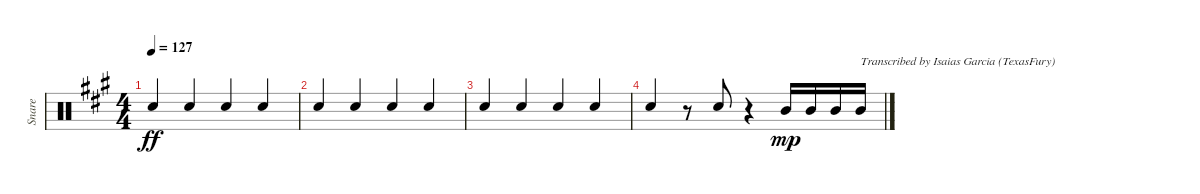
\track ("Snare" "Snare") {instrument percussion}
\staff {score}
\articulation defaults
\ts (4 4)
\tempo 127
\clef neutral
\ks a "Electric Snare (hit)".4{dy ff beam Up} "Electric Snare (hit)".4{beam Up} "Electric Snare (hit)".4{beam Up} "Electric Snare (hit)".4{beam Up}
|
"Electric Snare (hit)".4{beam Up} "Electric Snare (hit)".4{beam Up} "Electric Snare (hit)".4{beam Up} "Electric Snare (hit)".4{beam Up} |
"Electric Snare (hit)".4{beam Up} "Electric Snare (hit)".4{beam Up} "Electric Snare (hit)".4{beam Up} "Electric Snare (hit)".4{beam Up} |
"Electric Snare (hit)".4{beam Up} r.8 "Electric Snare (hit)".8{beam Up} r.4 "Mid Tom (hit)".16{dy mp beam Up} "Mid Tom (hit)".16{beam Up} "Mid Tom (hit)".16{beam Up} "Mid Tom (hit)".16{txt "Transcribed by Isaias Garcia (TexasFury)" beam Up}
